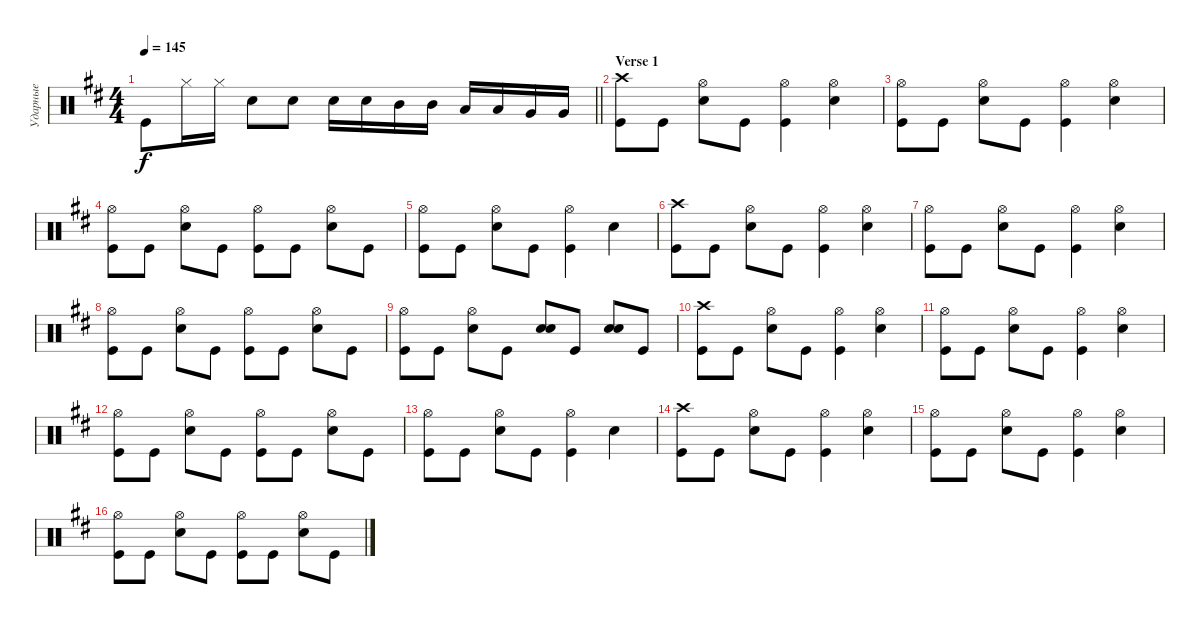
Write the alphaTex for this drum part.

\track ("Ударные" "Ударные") {instrument percussion}
\staff {score}
\articulation defaults
\ts (4 4)
\tempo 145
\clef neutral
\barLineRight lightlight
\ks bminor "Kick (hit)".8{dy f} "Hi-Hat (closed)".16 "Hi-Hat (closed)".16 "Snare (hit) 2".8 "Snare (hit) 2".8 "Snare (hit) 2".16 "Snare (hit) 2".16 "Mid Tom (hit)".16 "Mid Tom (hit)".16 "Low Tom (hit)".16 "Low Tom (hit)".16 "Very Low Tom (hit)".16 "Very Low Tom (hit)".16
|
\section ("" "Verse 1")
("Kick (hit)" "Crash high (hit)").8 "Kick (hit)".8 ("Snare (hit) 2" "Hi-Hat (open)").8 "Kick (hit)".8 ("Kick (hit)" "Hi-Hat (open)").4 ("Snare (hit) 2" "Hi-Hat (open)").4 |
("Kick (hit)" "Hi-Hat (open)").8 "Kick (hit)".8 ("Snare (hit) 2" "Hi-Hat (open)").8 "Kick (hit)".8 ("Kick (hit)" "Hi-Hat (open)").4 ("Snare (hit) 2" "Hi-Hat (open)").4 |
("Kick (hit)" "Hi-Hat (open)").8 "Kick (hit)".8 ("Snare (hit) 2" "Hi-Hat (open)").8 "Kick (hit)".8 ("Kick (hit)" "Hi-Hat (open)").8 "Kick (hit)".8 ("Snare (hit) 2" "Hi-Hat (open)").8 "Kick (hit)".8 |
("Kick (hit)" "Hi-Hat (open)").8 "Kick (hit)".8 ("Snare (hit) 2" "Hi-Hat (open)").8 "Kick (hit)".8 ("Kick (hit)" "Hi-Hat (open)").4 "Snare (hit) 2".4 |
("Kick (hit)" "Crash high (hit)").8 "Kick (hit)".8 ("Snare (hit) 2" "Hi-Hat (open)").8 "Kick (hit)".8 ("Kick (hit)" "Hi-Hat (open)").4 ("Snare (hit) 2" "Hi-Hat (open)").4 |
("Kick (hit)" "Hi-Hat (open)").8 "Kick (hit)".8 ("Snare (hit) 2" "Hi-Hat (open)").8 "Kick (hit)".8 ("Kick (hit)" "Hi-Hat (open)").4 ("Snare (hit) 2" "Hi-Hat (open)").4 |
("Kick (hit)" "Hi-Hat (open)").8 "Kick (hit)".8 ("Snare (hit) 2" "Hi-Hat (open)").8 "Kick (hit)".8 ("Kick (hit)" "Hi-Hat (open)").8 "Kick (hit)".8 ("Snare (hit) 2" "Hi-Hat (open)").8 "Kick (hit)".8 |
("Kick (hit)" "Hi-Hat (open)").8 "Kick (hit)".8 ("Snare (hit) 2" "Hi-Hat (open)").8 "Kick (hit)".8 ("Snare (hit) 2" "Snare (hit) 2").8{bd 240} "Kick (hit)".8 ("Snare (hit) 2" "Snare (hit) 2").8{bd 240} "Kick (hit)".8 |
("Kick (hit)" "Crash high (hit)").8 "Kick (hit)".8 ("Snare (hit) 2" "Hi-Hat (open)").8 "Kick (hit)".8 ("Kick (hit)" "Hi-Hat (open)").4 ("Snare (hit) 2" "Hi-Hat (open)").4 |
("Kick (hit)" "Hi-Hat (open)").8 "Kick (hit)".8 ("Snare (hit) 2" "Hi-Hat (open)").8 "Kick (hit)".8 ("Kick (hit)" "Hi-Hat (open)").4 ("Snare (hit) 2" "Hi-Hat (open)").4 |
("Kick (hit)" "Hi-Hat (open)").8 "Kick (hit)".8 ("Snare (hit) 2" "Hi-Hat (open)").8 "Kick (hit)".8 ("Kick (hit)" "Hi-Hat (open)").8 "Kick (hit)".8 ("Snare (hit) 2" "Hi-Hat (open)").8 "Kick (hit)".8 |
("Kick (hit)" "Hi-Hat (open)").8 "Kick (hit)".8 ("Snare (hit) 2" "Hi-Hat (open)").8 "Kick (hit)".8 ("Kick (hit)" "Hi-Hat (open)").4 "Snare (hit) 2".4 |
("Kick (hit)" "Crash high (hit)").8 "Kick (hit)".8 ("Snare (hit) 2" "Hi-Hat (open)").8 "Kick (hit)".8 ("Kick (hit)" "Hi-Hat (open)").4 ("Snare (hit) 2" "Hi-Hat (open)").4 |
("Kick (hit)" "Hi-Hat (open)").8 "Kick (hit)".8 ("Snare (hit) 2" "Hi-Hat (open)").8 "Kick (hit)".8 ("Kick (hit)" "Hi-Hat (open)").4 ("Snare (hit) 2" "Hi-Hat (open)").4 |
("Kick (hit)" "Hi-Hat (open)").8 "Kick (hit)".8 ("Snare (hit) 2" "Hi-Hat (open)").8 "Kick (hit)".8 ("Kick (hit)" "Hi-Hat (open)").8 "Kick (hit)".8 ("Snare (hit) 2" "Hi-Hat (open)").8 "Kick (hit)".8
